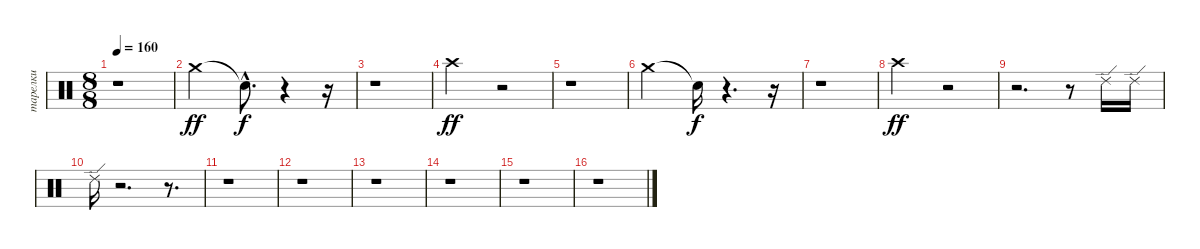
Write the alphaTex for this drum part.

\track ("тарелки" "тарелки") {instrument percussion}
\staff {score}
\articulation defaults
\ts (8 8)
\tempo 160
\clef neutral
\ks c
r.1{dy ff} |
"Crash medium (hit)".2 "Snare (hit)"{hac t}.8{d dy f} r.4 r.16 |
r.1 |
"Crash high (hit)".2{dy ff} r.2 |
r.1 |
"Crash medium (hit)".2 "Snare (hit)"{t}.16{dy f} r.4{d} r.16 |
r.1 |
"Crash high (hit)".2{dy ff} r.2 |
r.2{d} r.8 "Ride (edge) 2".16 "Ride (edge) 2".16 |
"Ride (edge) 2".16 r.2{d} r.8{d} |
r.1 |
r.1 |
r.1 |
r.1 |
r.1 |
r.1
